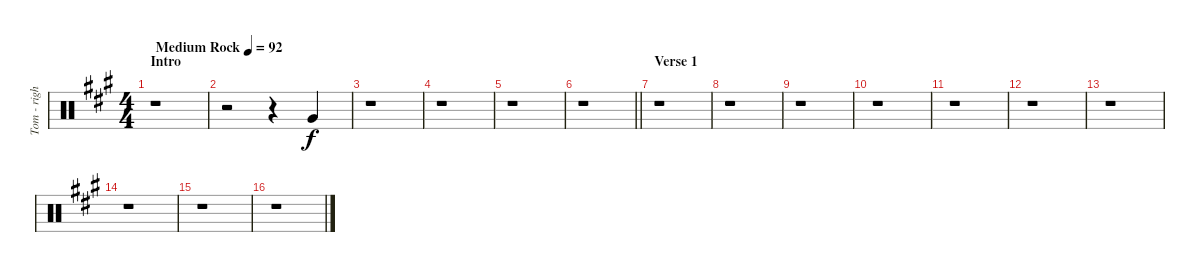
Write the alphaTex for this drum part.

\track ("Tom - right" "Tom - righ") {instrument percussion}
\staff {score}
\articulation defaults
\ts (4 4)
\section ("" "Intro")
\tempo (92 "Medium Rock")
\clef neutral
\ks f#minor
r.1{dy f balance 12} |
r.2 r.4 "Very Low Tom (hit)".4 |
r.1 |
r.1 |
r.1 |
\barLineRight lightlight
r.1 |
\section ("" "Verse 1")
r.1 |
r.1 |
r.1 |
r.1 |
r.1 |
r.1 |
r.1 |
r.1 |
r.1 |
r.1
